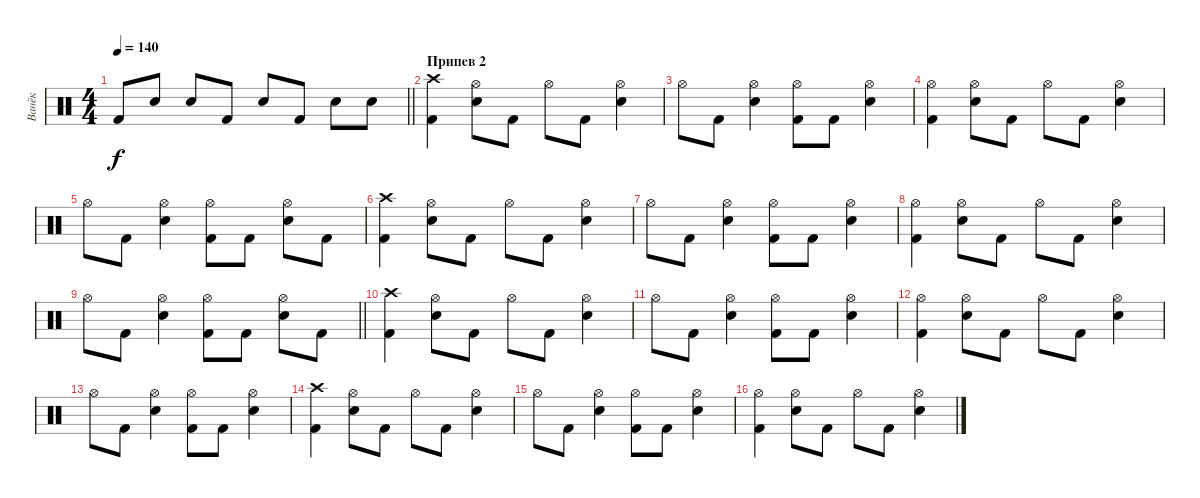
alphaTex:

\track ("Ванёк" "Ванёк") {instrument percussion}
\staff {score}
\articulation defaults
\ts (4 4)
\tempo 140
\clef neutral
\barLineRight lightlight
\ks c "Kick (hit) 2".8{dy f} "Electric Snare (hit)".8 "Electric Snare (hit)".8 "Kick (hit) 2".8 "Electric Snare (hit)".8 "Kick (hit) 2".8 "Electric Snare (hit)".8 "Electric Snare (hit)".8
|
\section ("" "Припев 2")
("Crash high (hit)" "Kick (hit) 2").4 ("Hi-Hat (open)" "Electric Snare (hit)").8 "Kick (hit) 2".8 "Hi-Hat (open)".8 "Kick (hit) 2".8 ("Hi-Hat (open)" "Electric Snare (hit)").4 |
"Hi-Hat (open)".8 "Kick (hit) 2".8 ("Hi-Hat (open)" "Electric Snare (hit)").4 ("Hi-Hat (open)" "Kick (hit) 2").8 "Kick (hit) 2".8 ("Hi-Hat (open)" "Electric Snare (hit)").4 |
("Hi-Hat (open)" "Kick (hit) 2").4 ("Hi-Hat (open)" "Electric Snare (hit)").8 "Kick (hit) 2".8 "Hi-Hat (open)".8 "Kick (hit) 2".8 ("Hi-Hat (open)" "Electric Snare (hit)").4 |
"Hi-Hat (open)".8 "Kick (hit) 2".8 ("Hi-Hat (open)" "Electric Snare (hit)").4 ("Hi-Hat (open)" "Kick (hit) 2").8 "Kick (hit) 2".8 ("Hi-Hat (open)" "Electric Snare (hit)").8 "Kick (hit) 2".8 |
("Crash high (hit)" "Kick (hit) 2").4 ("Hi-Hat (open)" "Electric Snare (hit)").8 "Kick (hit) 2".8 "Hi-Hat (open)".8 "Kick (hit) 2".8 ("Hi-Hat (open)" "Electric Snare (hit)").4 |
"Hi-Hat (open)".8 "Kick (hit) 2".8 ("Hi-Hat (open)" "Electric Snare (hit)").4 ("Hi-Hat (open)" "Kick (hit) 2").8 "Kick (hit) 2".8 ("Hi-Hat (open)" "Electric Snare (hit)").4 |
("Hi-Hat (open)" "Kick (hit) 2").4 ("Hi-Hat (open)" "Electric Snare (hit)").8 "Kick (hit) 2".8 "Hi-Hat (open)".8 "Kick (hit) 2".8 ("Hi-Hat (open)" "Electric Snare (hit)").4 |
\barLineRight lightlight "Hi-Hat (open)".8 "Kick (hit) 2".8
("Hi-Hat (open)" "Electric Snare (hit)").4 ("Hi-Hat (open)" "Kick (hit) 2").8 "Kick (hit) 2".8 ("Hi-Hat (open)" "Electric Snare (hit)").8 "Kick (hit) 2".8 |
("Crash high (hit)" "Kick (hit) 2").4 ("Hi-Hat (open)" "Electric Snare (hit)").8 "Kick (hit) 2".8 "Hi-Hat (open)".8 "Kick (hit) 2".8 ("Hi-Hat (open)" "Electric Snare (hit)").4 |
"Hi-Hat (open)".8 "Kick (hit) 2".8 ("Hi-Hat (open)" "Electric Snare (hit)").4 ("Hi-Hat (open)" "Kick (hit) 2").8 "Kick (hit) 2".8 ("Hi-Hat (open)" "Electric Snare (hit)").4 |
("Hi-Hat (open)" "Kick (hit) 2").4 ("Hi-Hat (open)" "Electric Snare (hit)").8 "Kick (hit) 2".8 "Hi-Hat (open)".8 "Kick (hit) 2".8 ("Hi-Hat (open)" "Electric Snare (hit)").4 |
"Hi-Hat (open)".8 "Kick (hit) 2".8 ("Hi-Hat (open)" "Electric Snare (hit)").4 ("Hi-Hat (open)" "Kick (hit) 2").8 "Kick (hit) 2".8 ("Hi-Hat (open)" "Electric Snare (hit)").4 |
("Crash high (hit)" "Kick (hit) 2").4 ("Hi-Hat (open)" "Electric Snare (hit)").8 "Kick (hit) 2".8 "Hi-Hat (open)".8 "Kick (hit) 2".8 ("Hi-Hat (open)" "Electric Snare (hit)").4 |
"Hi-Hat (open)".8 "Kick (hit) 2".8 ("Hi-Hat (open)" "Electric Snare (hit)").4 ("Hi-Hat (open)" "Kick (hit) 2").8 "Kick (hit) 2".8 ("Hi-Hat (open)" "Electric Snare (hit)").4 |
("Hi-Hat (open)" "Kick (hit) 2").4 ("Hi-Hat (open)" "Electric Snare (hit)").8 "Kick (hit) 2".8 "Hi-Hat (open)".8 "Kick (hit) 2".8 ("Hi-Hat (open)" "Electric Snare (hit)").4
